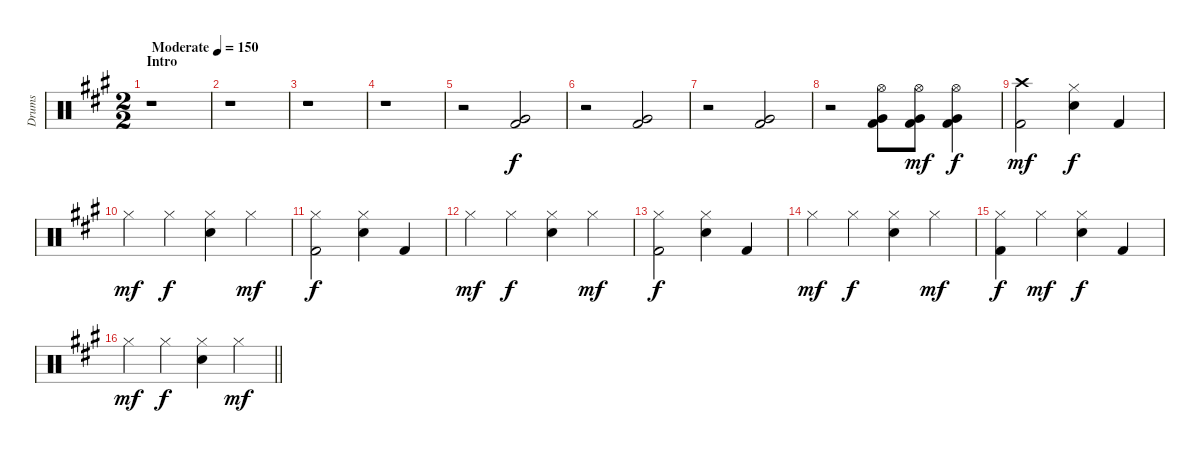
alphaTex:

\track ("Drums" "Drums") {instrument percussion}
\staff {score}
\articulation defaults
\ts (2 2)
\section ("" "Intro")
\tempo (150 "Moderate")
\clef neutral
\ks a
r.1{dy f} |
r.1 |
r.1 |
r.1 |
r.2 ("Very Low Tom (hit)" "Kick (hit) 2").2 |
r.2 ("Very Low Tom (hit)" "Kick (hit) 2").2 |
r.2 ("Very Low Tom (hit)" "Kick (hit) 2").2 |
r.2 ("Hi-Hat (open)" "Very Low Tom (hit)" "Kick (hit) 2").8 ("Hi-Hat (open)" "Very Low Tom (hit)" "Kick (hit) 2").8{dy mf} ("Hi-Hat (open)" "Very Low Tom (hit)" "Kick (hit) 2").4{dy f} |
("Crash high (hit)" "Kick (hit) 2").2{dy mf} ("Hi-Hat (closed)" "Electric Snare (hit)").4{dy f} "Kick (hit) 2".4 |
"Hi-Hat (closed)".4{dy mf} "Hi-Hat (closed)".4{dy f} ("Hi-Hat (closed)" "Electric Snare (hit)").4 "Hi-Hat (closed)".4{dy mf} |
("Hi-Hat (closed)" "Kick (hit) 2").2{dy f} ("Hi-Hat (closed)" "Electric Snare (hit)").4 "Kick (hit) 2".4 |
"Hi-Hat (closed)".4{dy mf} "Hi-Hat (closed)".4{dy f} ("Hi-Hat (closed)" "Electric Snare (hit)").4 "Hi-Hat (closed)".4{dy mf} |
("Hi-Hat (closed)" "Kick (hit) 2").2{dy f} ("Hi-Hat (closed)" "Electric Snare (hit)").4 "Kick (hit) 2".4 |
"Hi-Hat (closed)".4{dy mf} "Hi-Hat (closed)".4{dy f} ("Hi-Hat (closed)" "Electric Snare (hit)").4 "Hi-Hat (closed)".4{dy mf} |
("Hi-Hat (closed)" "Kick (hit) 2").4{dy f} "Hi-Hat (closed)".4{dy mf} ("Hi-Hat (closed)" "Electric Snare (hit)").4{dy f} "Kick (hit) 2".4 |
\barLineRight lightlight "Hi-Hat (closed)".4{dy mf} "Hi-Hat (closed)".4{dy f}
("Hi-Hat (closed)" "Electric Snare (hit)").4 "Hi-Hat (closed)".4{dy mf}
